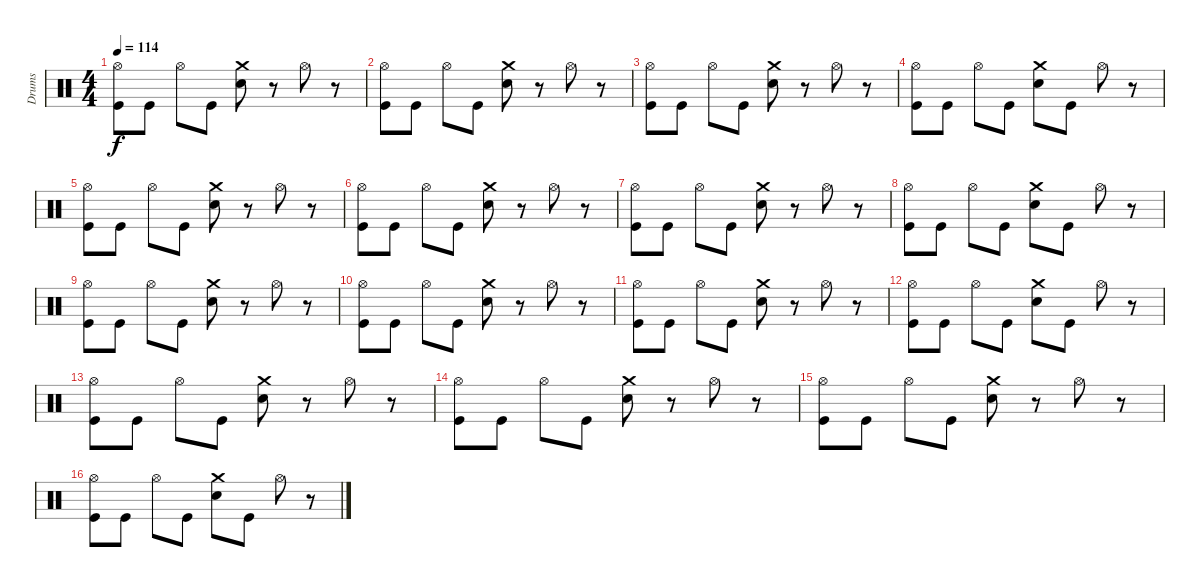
\track ("Drums" "Drums") {instrument percussion}
\staff {score}
\articulation defaults
\ts (4 4)
\tempo 114
\clef neutral
\ks c
("Kick (hit)" "Hi-Hat (open)").8{dy f} "Kick (hit)".8 "Hi-Hat (open)".8 "Kick (hit)".8 ("Crash medium (hit)" "Electric Snare (hit)").8 r.8 "Hi-Hat (open)".8 r.8 |
("Kick (hit)" "Hi-Hat (open)").8 "Kick (hit)".8 "Hi-Hat (open)".8 "Kick (hit)".8 ("Crash medium (hit)" "Electric Snare (hit)").8 r.8 "Hi-Hat (open)".8 r.8 |
("Kick (hit)" "Hi-Hat (open)").8 "Kick (hit)".8 "Hi-Hat (open)".8 "Kick (hit)".8 ("Crash medium (hit)" "Electric Snare (hit)").8 r.8 "Hi-Hat (open)".8 r.8 |
("Kick (hit)" "Hi-Hat (open)").8 "Kick (hit)".8 "Hi-Hat (open)".8 "Kick (hit)".8 ("Crash medium (hit)" "Electric Snare (hit)").8 "Kick (hit)".8 "Hi-Hat (open)".8 r.8 |
("Kick (hit)" "Hi-Hat (open)").8 "Kick (hit)".8 "Hi-Hat (open)".8 "Kick (hit)".8 ("Crash medium (hit)" "Electric Snare (hit)").8 r.8 "Hi-Hat (open)".8 r.8 |
("Kick (hit)" "Hi-Hat (open)").8 "Kick (hit)".8 "Hi-Hat (open)".8 "Kick (hit)".8 ("Crash medium (hit)" "Electric Snare (hit)").8 r.8 "Hi-Hat (open)".8 r.8 |
("Kick (hit)" "Hi-Hat (open)").8 "Kick (hit)".8 "Hi-Hat (open)".8 "Kick (hit)".8 ("Crash medium (hit)" "Electric Snare (hit)").8 r.8 "Hi-Hat (open)".8 r.8 |
("Kick (hit)" "Hi-Hat (open)").8 "Kick (hit)".8 "Hi-Hat (open)".8 "Kick (hit)".8 ("Crash medium (hit)" "Electric Snare (hit)").8 "Kick (hit)".8 "Hi-Hat (open)".8 r.8 |
("Kick (hit)" "Hi-Hat (open)").8 "Kick (hit)".8 "Hi-Hat (open)".8 "Kick (hit)".8 ("Crash medium (hit)" "Electric Snare (hit)").8 r.8 "Hi-Hat (open)".8 r.8 |
("Kick (hit)" "Hi-Hat (open)").8 "Kick (hit)".8 "Hi-Hat (open)".8 "Kick (hit)".8 ("Crash medium (hit)" "Electric Snare (hit)").8 r.8 "Hi-Hat (open)".8 r.8 |
("Kick (hit)" "Hi-Hat (open)").8 "Kick (hit)".8 "Hi-Hat (open)".8 "Kick (hit)".8 ("Crash medium (hit)" "Electric Snare (hit)").8 r.8 "Hi-Hat (open)".8 r.8 |
("Kick (hit)" "Hi-Hat (open)").8 "Kick (hit)".8 "Hi-Hat (open)".8 "Kick (hit)".8 ("Crash medium (hit)" "Electric Snare (hit)").8 "Kick (hit)".8 "Hi-Hat (open)".8 r.8 |
("Kick (hit)" "Hi-Hat (open)").8 "Kick (hit)".8 "Hi-Hat (open)".8 "Kick (hit)".8 ("Crash medium (hit)" "Electric Snare (hit)").8 r.8 "Hi-Hat (open)".8 r.8 |
("Kick (hit)" "Hi-Hat (open)").8 "Kick (hit)".8 "Hi-Hat (open)".8 "Kick (hit)".8 ("Crash medium (hit)" "Electric Snare (hit)").8 r.8 "Hi-Hat (open)".8 r.8 |
("Kick (hit)" "Hi-Hat (open)").8 "Kick (hit)".8 "Hi-Hat (open)".8 "Kick (hit)".8 ("Crash medium (hit)" "Electric Snare (hit)").8 r.8 "Hi-Hat (open)".8 r.8 |
("Kick (hit)" "Hi-Hat (open)").8 "Kick (hit)".8 "Hi-Hat (open)".8 "Kick (hit)".8 ("Crash medium (hit)" "Electric Snare (hit)").8 "Kick (hit)".8 "Hi-Hat (open)".8 r.8
